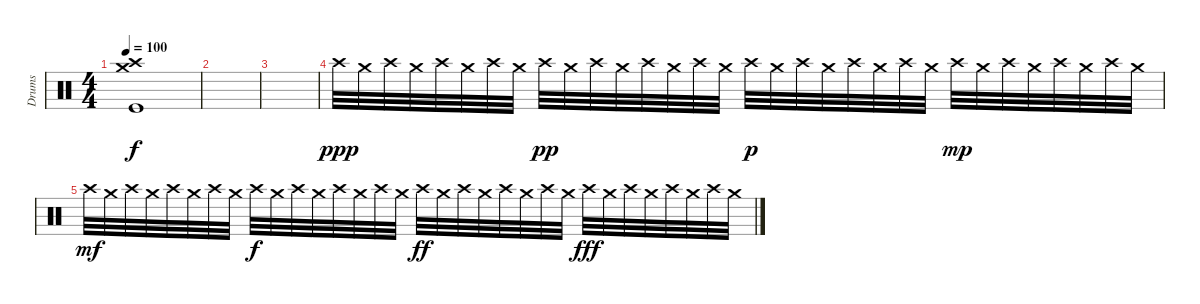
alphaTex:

\track ("Drums" "Drums") {instrument percussion}
\staff {score}
\articulation defaults
\ts (4 4)
\tempo 100
\clef neutral
\ks c
("Crash high (hit)" "Crash medium (hit)" "Kick (hit)").1{dy f} |
|
|
"Crash high (hit)".32{dy ppp} "Crash medium (hit)".32 "Crash high (hit)".32 "Crash medium (hit)".32 "Crash high (hit)".32 "Crash medium (hit)".32 "Crash high (hit)".32 "Crash medium (hit)".32 "Crash high (hit)".32{dy pp} "Crash medium (hit)".32 "Crash high (hit)".32 "Crash medium (hit)".32 "Crash high (hit)".32 "Crash medium (hit)".32 "Crash high (hit)".32 "Crash medium (hit)".32 "Crash high (hit)".32{dy p} "Crash medium (hit)".32 "Crash high (hit)".32 "Crash medium (hit)".32 "Crash high (hit)".32 "Crash medium (hit)".32 "Crash high (hit)".32 "Crash medium (hit)".32 "Crash high (hit)".32{dy mp} "Crash medium (hit)".32 "Crash high (hit)".32 "Crash medium (hit)".32 "Crash high (hit)".32 "Crash medium (hit)".32 "Crash high (hit)".32 "Crash medium (hit)".32 |
"Crash high (hit)".32{dy mf} "Crash medium (hit)".32 "Crash high (hit)".32 "Crash medium (hit)".32 "Crash high (hit)".32 "Crash medium (hit)".32 "Crash high (hit)".32 "Crash medium (hit)".32 "Crash high (hit)".32{dy f} "Crash medium (hit)".32 "Crash high (hit)".32 "Crash medium (hit)".32 "Crash high (hit)".32 "Crash medium (hit)".32 "Crash high (hit)".32 "Crash medium (hit)".32 "Crash high (hit)".32{dy ff} "Crash medium (hit)".32 "Crash high (hit)".32 "Crash medium (hit)".32 "Crash high (hit)".32 "Crash medium (hit)".32 "Crash high (hit)".32 "Crash medium (hit)".32 "Crash high (hit)".32{dy fff} "Crash medium (hit)".32 "Crash high (hit)".32 "Crash medium (hit)".32 "Crash high (hit)".32 "Crash medium (hit)".32 "Crash high (hit)".32 "Crash medium (hit)".32
